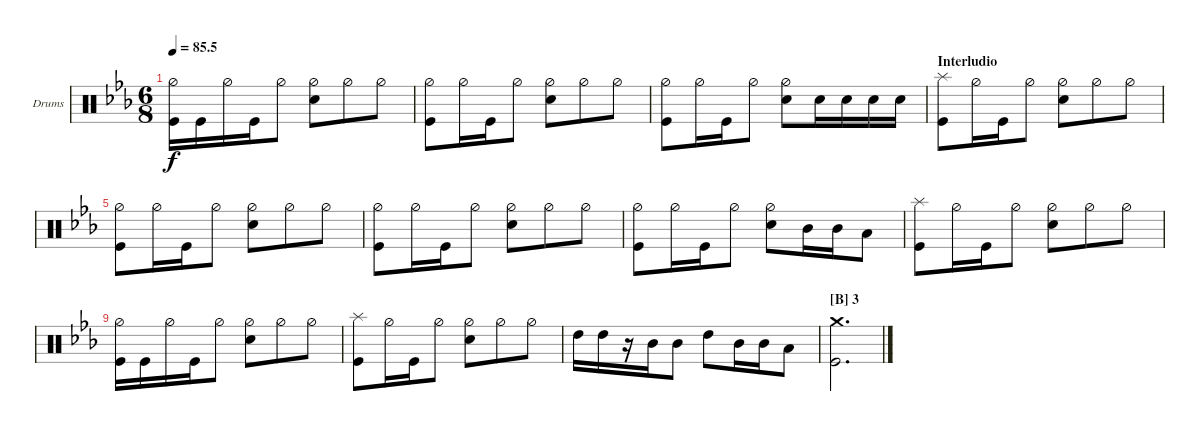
\defaultSystemsLayout 4
\bracketExtendMode groupsimilarinstruments
\multiTrackTrackNamePolicy allsystems
\firstSystemTrackNameOrientation horizontal
\otherSystemsTrackNameOrientation horizontal
\defaultBarNumberDisplay FirstOfSystem
\track ("Drumkit" "Drums") {instrument percussion}
\staff {score}
\articulation defaults
\ts (6 8)
\tempo
85.5
\accidentals auto
\clef neutral
\ottava regular
\simile none
\ks eb
("Kick (hit)" "Hi-Hat (half)").16{dy f} "Kick (hit)".16 "Hi-Hat (half)".16 "Kick (hit)".16 "Hi-Hat (half)".8 ("Hi-Hat (half)" "Snare (hit) 2").8 "Hi-Hat (half)".8 "Hi-Hat (half)".8 |
("Kick (hit)" "Hi-Hat (half)").8 "Hi-Hat (half)".16 "Kick (hit)".16 "Hi-Hat (half)".8 ("Hi-Hat (half)" "Snare (hit) 2").8 "Hi-Hat (half)".8 "Hi-Hat (half)".8 |
("Kick (hit)" "Hi-Hat (half)").8 "Hi-Hat (half)".16 "Kick (hit)".16 "Hi-Hat (half)".8 ("Hi-Hat (half)" "Snare (hit) 2").8 "Snare (hit) 2".16 "Snare (hit) 2".16 "Snare (hit) 2".16 "Snare (hit) 2".16 |
\section ("" "Interludio")
("Splash (hit)" "Kick (hit)").8 "Hi-Hat (half)".16 "Kick (hit)".16 "Hi-Hat (half)".8 ("Hi-Hat (half)" "Snare (hit) 2").8 "Hi-Hat (half)".8 "Hi-Hat (half)".8 |
("Kick (hit)" "Hi-Hat (half)").8 "Hi-Hat (half)".16 "Kick (hit)".16 "Hi-Hat (half)".8 ("Hi-Hat (half)" "Snare (hit) 2").8 "Hi-Hat (half)".8 "Hi-Hat (half)".8 |
("Kick (hit)" "Hi-Hat (half)").8 "Hi-Hat (half)".16 "Kick (hit)".16 "Hi-Hat (half)".8 ("Hi-Hat (half)" "Snare (hit) 2").8 "Hi-Hat (half)".8 "Hi-Hat (half)".8 |
("Kick (hit)" "Hi-Hat (half)").8 "Hi-Hat (half)".16 "Kick (hit)".16 "Hi-Hat (half)".8 ("Hi-Hat (half)" "Snare (hit) 2").8 "Mid Tom (hit)".16 "Mid Tom (hit)".16 "Low Tom (hit)".8 |
("Splash (hit)" "Kick (hit)").8 "Hi-Hat (half)".16 "Kick (hit)".16 "Hi-Hat (half)".8 ("Hi-Hat (half)" "Snare (hit) 2").8 "Hi-Hat (half)".8 "Hi-Hat (half)".8 |
("Kick (hit)" "Hi-Hat (half)").16 "Kick (hit)".16 "Hi-Hat (half)".16 "Kick (hit)".16 "Hi-Hat (half)".8 ("Hi-Hat (half)" "Snare (hit) 2").8 "Hi-Hat (half)".8 "Hi-Hat (half)".8 |
("Splash (hit)" "Kick (hit)").8 "Hi-Hat (half)".16 "Kick (hit)".16 "Hi-Hat (half)".8 ("Hi-Hat (half)" "Snare (hit) 2").8 "Hi-Hat (half)".8 "Hi-Hat (half)".8 |
"High Tom (hit)".16 "High Tom (hit)".16 r.16 "Mid Tom (hit)".16 "Mid Tom (hit)".8 "High Tom (hit)".8 "Mid Tom (hit)".16 "Mid Tom (hit)".16 "Low Tom (hit)".8 |
\section ("B" "3")
("Kick (hit)" "Crash medium (hit)").2{d}
